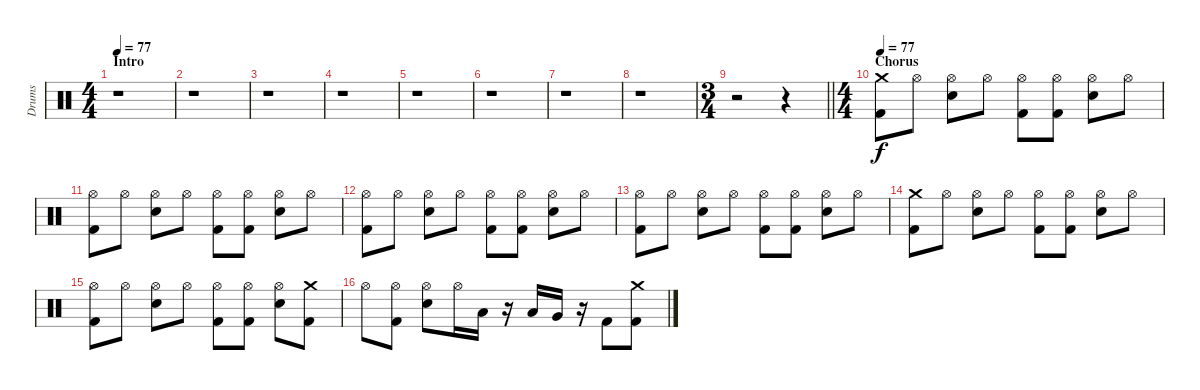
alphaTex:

\track ("Drums" "Drums") {instrument percussion}
\staff {score}
\articulation defaults
\ts (4 4)
\section ("" "Intro")
\tempo 77
\tempo 60
\tempo 77
\clef neutral
\ks c
r.1{dy f} |
r.1 |
r.1 |
r.1 |
r.1 |
r.1 |
r.1 |
r.1 |
\ts (3 4)
\barLineRight lightlight
r.2 r.4 |
\ts (4 4)
\section ("" "Chorus")
\tempo 77
("Crash medium (hit)" "Kick (hit) 2").8 "Hi-Hat (open)".8 ("Hi-Hat (open)" "Electric Snare (hit)").8 "Hi-Hat (open)".8 ("Hi-Hat (open)" "Kick (hit) 2").8 ("Hi-Hat (open)" "Kick (hit) 2").8 ("Hi-Hat (open)" "Electric Snare (hit)").8 "Hi-Hat (open)".8 |
("Hi-Hat (open)" "Kick (hit) 2").8 "Hi-Hat (open)".8 ("Hi-Hat (open)" "Electric Snare (hit)").8 "Hi-Hat (open)".8 ("Hi-Hat (open)" "Kick (hit) 2").8 ("Hi-Hat (open)" "Kick (hit) 2").8 ("Hi-Hat (open)" "Electric Snare (hit)").8 "Hi-Hat (open)".8 |
("Hi-Hat (open)" "Kick (hit) 2").8 "Hi-Hat (open)".8 ("Hi-Hat (open)" "Electric Snare (hit)").8 "Hi-Hat (open)".8 ("Hi-Hat (open)" "Kick (hit) 2").8 ("Hi-Hat (open)" "Kick (hit) 2").8 ("Hi-Hat (open)" "Electric Snare (hit)").8 "Hi-Hat (open)".8 |
("Hi-Hat (open)" "Kick (hit) 2").8 "Hi-Hat (open)".8 ("Hi-Hat (open)" "Electric Snare (hit)").8 "Hi-Hat (open)".8 ("Hi-Hat (open)" "Kick (hit) 2").8 ("Hi-Hat (open)" "Kick (hit) 2").8 ("Hi-Hat (open)" "Electric Snare (hit)").8 "Hi-Hat (open)".8 |
("Crash medium (hit)" "Kick (hit) 2").8 "Hi-Hat (open)".8 ("Hi-Hat (open)" "Electric Snare (hit)").8 "Hi-Hat (open)".8 ("Hi-Hat (open)" "Kick (hit) 2").8 ("Hi-Hat (open)" "Kick (hit) 2").8 ("Hi-Hat (open)" "Electric Snare (hit)").8 "Hi-Hat (open)".8 |
("Hi-Hat (open)" "Kick (hit) 2").8 "Hi-Hat (open)".8 ("Hi-Hat (open)" "Electric Snare (hit)").8 "Hi-Hat (open)".8 ("Hi-Hat (open)" "Kick (hit) 2").8 ("Hi-Hat (open)" "Kick (hit) 2").8 ("Hi-Hat (open)" "Electric Snare (hit)").8 ("Crash medium (hit)" "Kick (hit) 2").8 |
"Hi-Hat (open)".8 ("Hi-Hat (open)" "Kick (hit) 2").8 ("Hi-Hat (open)" "Electric Snare (hit)").8 "Hi-Hat (open)".16 "Low Tom (hit)".16 r.16 "Low Tom (hit)".16 "Very Low Tom (hit)".16 r.16 "Kick (hit) 2".8 ("Crash medium (hit)" "Kick (hit) 2").8
